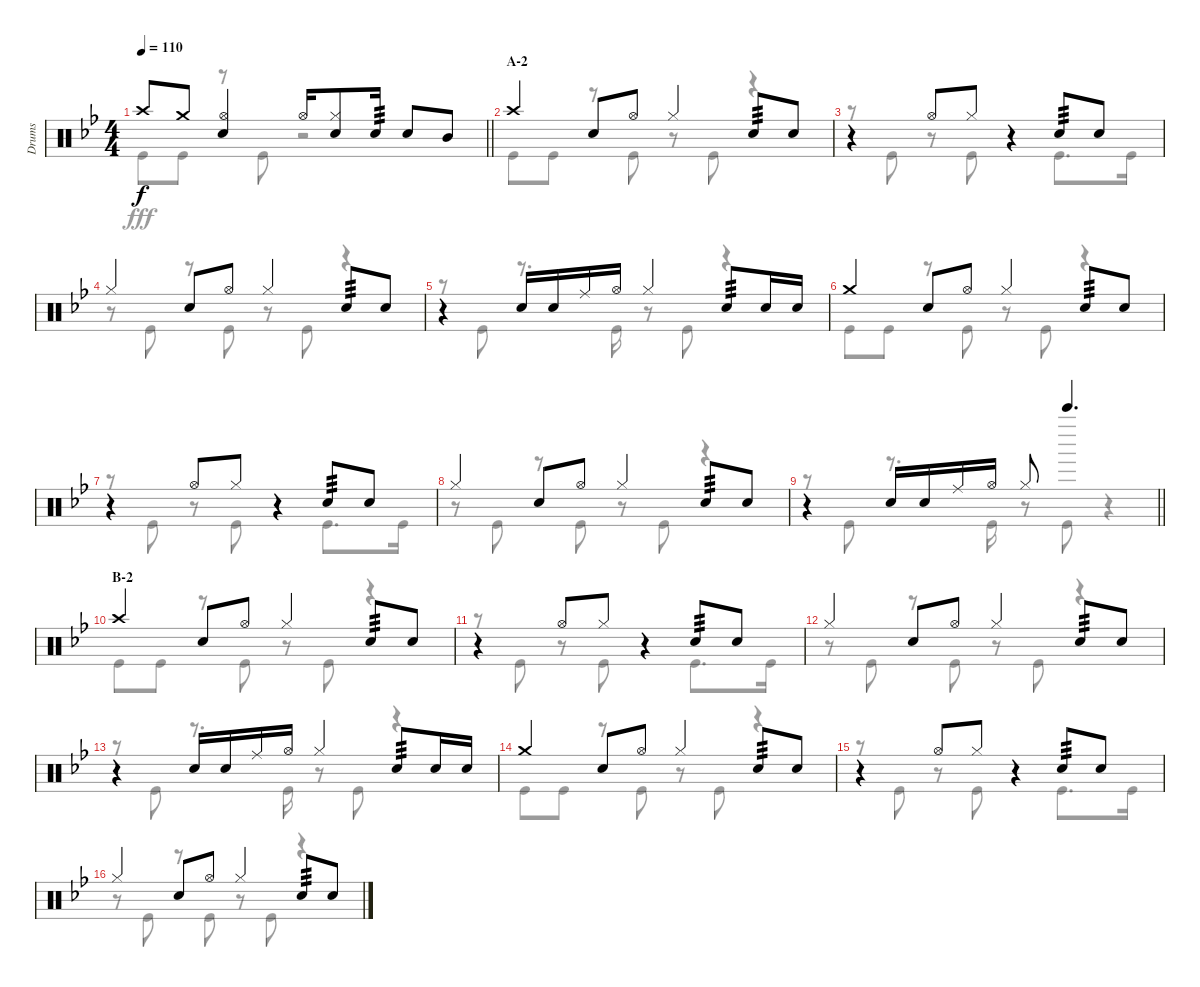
\track ("Drums" "Drums") {instrument percussion}
\staff {score}
\articulation defaults
\voice
\ts (4 4)
\tempo 110
\clef neutral
\barLineRight lightlight
\ks bb "Crash high (hit)".8{dy f} "Crash medium (hit)".8
("Hi-Hat (open)" "Snare (hit) 2").4 "Hi-Hat (open)".16 ("Hi-Hat (closed)" "Snare (hit) 2").8 "Snare (hit) 2".16{tp 3} "Snare (hit) 2".8 "Mid Tom (hit)".8 |
\section ("" "A-2")
"Crash high (hit)".4 "Snare (hit) 2".8 "Hi-Hat (open)".8 "Hi-Hat (closed)".4 "Snare (hit) 2".8{tp 3} "Snare (hit) 2".8 |
r.4 "Hi-Hat (open)".8 "Hi-Hat (closed)".8 r.4 "Snare (hit) 2".8{tp 3} "Snare (hit) 2".8 |
"Hi-Hat (closed)".4 "Snare (hit) 2".8 "Hi-Hat (open)".8 "Hi-Hat (closed)".4 "Snare (hit) 2".8{tp 3} "Snare (hit) 2".8 |
r.4 "Snare (hit) 2".16 "Snare (hit) 2".16 "Ride (middle)".16 "Hi-Hat (open)".16 "Hi-Hat (closed)".4 "Snare (hit) 2".8{tp 3} "Snare (hit) 2".16 "Snare (hit) 2".16 |
"Crash medium (hit)".4 "Snare (hit) 2".8 "Hi-Hat (open)".8 "Hi-Hat (closed)".4 "Snare (hit) 2".8{tp 3} "Snare (hit) 2".8 |
r.4 "Hi-Hat (open)".8 "Hi-Hat (closed)".8 r.4 "Snare (hit) 2".8{tp 3} "Snare (hit) 2".8 |
"Hi-Hat (closed)".4 "Snare (hit) 2".8 "Hi-Hat (open)".8 "Hi-Hat (closed)".4 "Snare (hit) 2".8{tp 3} "Snare (hit) 2".8 |
\barLineRight lightlight
r.4 "Snare (hit) 2".16 "Snare (hit) 2".16 "Ride (middle)".16 "Hi-Hat (open)".16 "Hi-Hat (closed)".8 "Bell Tree (hit)".4{d} |
\section ("" "B-2")
"Crash high (hit)".4 "Snare (hit) 2".8 "Hi-Hat (open)".8 "Hi-Hat (closed)".4 "Snare (hit) 2".8{tp 3} "Snare (hit) 2".8 |
r.4 "Hi-Hat (open)".8 "Hi-Hat (closed)".8 r.4 "Snare (hit) 2".8{tp 3} "Snare (hit) 2".8 |
"Hi-Hat (closed)".4 "Snare (hit) 2".8 "Hi-Hat (open)".8 "Hi-Hat (closed)".4 "Snare (hit) 2".8{tp 3} "Snare (hit) 2".8 |
r.4 "Snare (hit) 2".16 "Snare (hit) 2".16 "Ride (middle)".16 "Hi-Hat (open)".16 "Hi-Hat (closed)".4 "Snare (hit) 2".8{tp 3} "Snare (hit) 2".16 "Snare (hit) 2".16 |
"Crash medium (hit)".4 "Snare (hit) 2".8 "Hi-Hat (open)".8 "Hi-Hat (closed)".4 "Snare (hit) 2".8{tp 3} "Snare (hit) 2".8 |
r.4 "Hi-Hat (open)".8 "Hi-Hat (closed)".8 r.4 "Snare (hit) 2".8{tp 3} "Snare (hit) 2".8 |
"Hi-Hat (closed)".4 "Snare (hit) 2".8 "Hi-Hat (open)".8 "Hi-Hat (closed)".4 "Snare (hit) 2".8{tp 3} "Snare (hit) 2".8
\voice
\clef neutral
\ottava regular
\simile none
\barLineRight lightlight
\ks bb "Kick (hit)".8{dy fff} "Kick (hit)".8
r.8 "Kick (hit)".8 r.2 |
"Kick (hit)".8 "Kick (hit)".8 r.8 "Kick (hit)".8 r.8 "Kick (hit)".8 r.4 |
r.8 "Kick (hit)".8 r.8 "Kick (hit)".8 r.4 "Kick (hit)".8{d} "Kick (hit)".16 |
r.8 "Kick (hit)".8 r.8 "Kick (hit)".8 r.8 "Kick (hit)".8 r.4 |
r.8 "Kick (hit)".8 r.8{d} "Kick (hit)".16 r.8 "Kick (hit)".8 r.4 |
"Kick (hit)".8 "Kick (hit)".8 r.8 "Kick (hit)".8 r.8 "Kick (hit)".8 r.4 |
r.8 "Kick (hit)".8 r.8 "Kick (hit)".8 r.4 "Kick (hit)".8{d} "Kick (hit)".16 |
r.8 "Kick (hit)".8 r.8 "Kick (hit)".8 r.8 "Kick (hit)".8 r.4 |
\barLineRight lightlight
r.8 "Kick (hit)".8 r.8{d} "Kick (hit)".16 r.8 "Kick (hit)".8 r.4 |
"Kick (hit)".8 "Kick (hit)".8 r.8 "Kick (hit)".8 r.8 "Kick (hit)".8 r.4 |
r.8 "Kick (hit)".8 r.8 "Kick (hit)".8 r.4 "Kick (hit)".8{d} "Kick (hit)".16 |
r.8 "Kick (hit)".8 r.8 "Kick (hit)".8 r.8 "Kick (hit)".8 r.4 |
r.8 "Kick (hit)".8 r.8{d} "Kick (hit)".16 r.8 "Kick (hit)".8 r.4 |
"Kick (hit)".8 "Kick (hit)".8 r.8 "Kick (hit)".8 r.8 "Kick (hit)".8 r.4 |
r.8 "Kick (hit)".8 r.8 "Kick (hit)".8 r.4 "Kick (hit)".8{d} "Kick (hit)".16 |
r.8 "Kick (hit)".8 r.8 "Kick (hit)".8 r.8 "Kick (hit)".8 r.4
